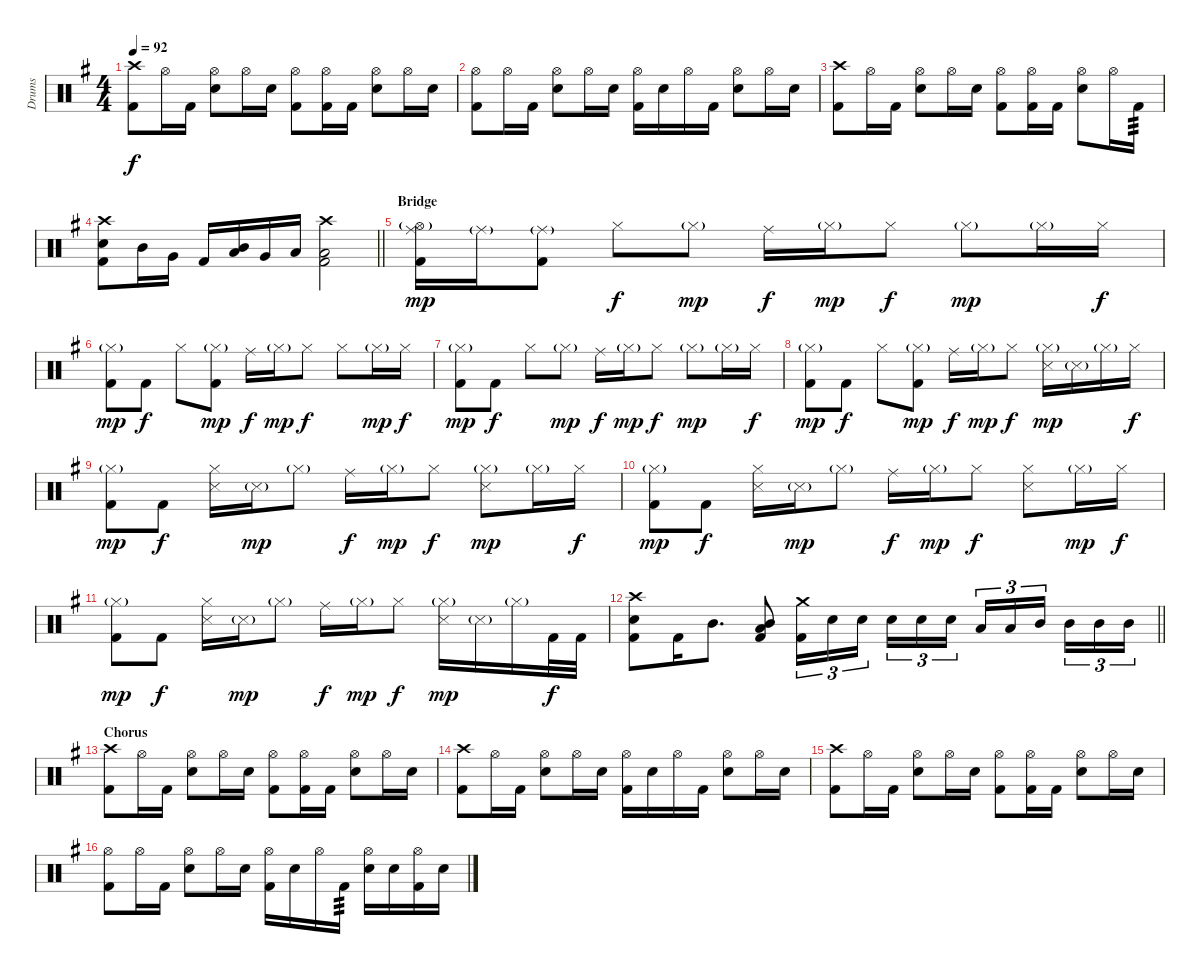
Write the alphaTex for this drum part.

\track ("Drums" "Drums") {instrument percussion}
\staff {score}
\articulation defaults
\ts (4 4)
\tempo 92
\clef neutral
\ks g
("Crash high (hit)" "Kick (hit) 2").8{dy f} "Hi-Hat (open)".16 "Kick (hit) 2".16 ("Hi-Hat (open)" "Electric Snare (hit)").8 "Hi-Hat (open)".16 "Electric Snare (hit)".16 ("Hi-Hat (open)" "Kick (hit) 2").8 ("Hi-Hat (open)" "Kick (hit) 2").16 "Kick (hit) 2".16 ("Hi-Hat (open)" "Electric Snare (hit)").8 "Hi-Hat (open)".16 "Electric Snare (hit)".16 |
("Hi-Hat (open)" "Kick (hit) 2").8 "Hi-Hat (open)".16 "Kick (hit) 2".16 ("Hi-Hat (open)" "Electric Snare (hit)").8 "Hi-Hat (open)".16 "Electric Snare (hit)".16 ("Hi-Hat (open)" "Kick (hit) 2").16 "Electric Snare (hit)".16 "Hi-Hat (open)".16 "Kick (hit) 2".16 ("Hi-Hat (open)" "Electric Snare (hit)").8 "Hi-Hat (open)".16 "Electric Snare (hit)".16 |
("Crash high (hit)" "Kick (hit) 2").8 "Hi-Hat (open)".16 "Kick (hit) 2".16 ("Hi-Hat (open)" "Electric Snare (hit)").8 "Hi-Hat (open)".16 "Electric Snare (hit)".16 ("Hi-Hat (open)" "Kick (hit) 2").8 ("Hi-Hat (open)" "Kick (hit) 2").16 "Kick (hit) 2".16 ("Hi-Hat (open)" "Electric Snare (hit)").8 "Hi-Hat (open)".16 "Kick (hit) 2".16{tp 3} |
\barLineRight lightlight
("Crash high (hit)" "Electric Snare (hit)" "Kick (hit) 2").8 "Mid Tom (hit)".16 "Very Low Tom (hit)".16 "Kick (hit) 2".16 ("Mid Tom (hit)" "Low Tom (hit)").16 "Very Low Tom (hit)".16 "Low Floor Tom (hit)".16 ("Crash high (hit)" "Low Floor Tom (hit)" "Kick (hit) 2").2 |
\section ("" "Bridge")
("Ride (middle)" "Hi-Hat (open)"{g} "Kick (hit) 2").16{dy mp} "Ride (middle)"{g}.16 ("Ride (middle)"{g} "Kick (hit) 2").8 "Hi-Hat (closed)".8{dy f} "Hi-Hat (closed)"{g}.8{dy mp} "Ride (middle)".16{dy f} "Hi-Hat (closed)"{g}.16{dy mp} "Hi-Hat (closed)".8{dy f} "Hi-Hat (closed)"{g}.8{dy mp} "Hi-Hat (closed)"{g}.16 "Hi-Hat (closed)".16{dy f} |
("Hi-Hat (closed)"{g} "Kick (hit) 2").8{dy mp} "Kick (hit) 2".8{dy f} "Hi-Hat (closed)".8 ("Hi-Hat (closed)"{g} "Kick (hit) 2").8{dy mp} "Ride (middle)".16{dy f} "Hi-Hat (closed)"{g}.16{dy mp} "Hi-Hat (closed)".8{dy f} "Hi-Hat (closed)".8 "Hi-Hat (closed)"{g}.16{dy mp} "Hi-Hat (closed)".16{dy f} |
("Hi-Hat (closed)"{g} "Kick (hit) 2").8{dy mp} "Kick (hit) 2".8{dy f} "Hi-Hat (closed)".8 "Hi-Hat (closed)"{g}.8{dy mp} "Ride (middle)".16{dy f} "Hi-Hat (closed)"{g}.16{dy mp} "Hi-Hat (closed)".8{dy f} "Hi-Hat (closed)"{g}.8{dy mp} "Hi-Hat (closed)"{g}.16 "Hi-Hat (closed)".16{dy f} |
("Hi-Hat (closed)"{g} "Kick (hit) 2").8{dy mp} "Kick (hit) 2".8{dy f} "Hi-Hat (closed)".8 ("Hi-Hat (closed)"{g} "Kick (hit) 2").8{dy mp} "Ride (middle)".16{dy f} "Hi-Hat (closed)"{g}.16{dy mp} "Hi-Hat (closed)".8{dy f} ("Hi-Hat (closed)"{g} "Snare (side stick) 3").16{dy mp} "Snare (side stick) 3"{g}.16 "Hi-Hat (closed)"{g}.16 "Hi-Hat (closed)".16{dy f} |
("Hi-Hat (closed)"{g} "Kick (hit) 2").8{dy mp} "Kick (hit) 2".8{dy f} ("Hi-Hat (closed)" "Snare (side stick) 3").16 "Snare (side stick) 3"{g}.16{dy mp} "Hi-Hat (closed)"{g}.8 "Ride (middle)".16{dy f} "Hi-Hat (closed)"{g}.16{dy mp} "Hi-Hat (closed)".8{dy f} ("Hi-Hat (closed)"{g} "Snare (side stick) 3").8{dy mp} "Hi-Hat (closed)"{g}.16 "Hi-Hat (closed)".16{dy f} |
("Hi-Hat (closed)"{g} "Kick (hit) 2").8{dy mp} "Kick (hit) 2".8{dy f} ("Hi-Hat (closed)" "Snare (side stick) 3").16 "Snare (side stick) 3"{g}.16{dy mp} "Hi-Hat (closed)"{g}.8 "Ride (middle)".16{dy f} "Hi-Hat (closed)"{g}.16{dy mp} "Hi-Hat (closed)".8{dy f} ("Hi-Hat (closed)" "Snare (side stick) 3").8 "Hi-Hat (closed)"{g}.16{dy mp} "Hi-Hat (closed)".16{dy f} |
("Hi-Hat (closed)"{g} "Kick (hit) 2").8{dy mp} "Kick (hit) 2".8{dy f} ("Hi-Hat (closed)" "Snare (side stick) 3").16 "Snare (side stick) 3"{g}.16{dy mp} "Hi-Hat (closed)"{g}.8 "Ride (middle)".16{dy f} "Hi-Hat (closed)"{g}.16{dy mp} "Hi-Hat (closed)".8{dy f} ("Hi-Hat (closed)"{g} "Snare (side stick) 3").16{dy mp} "Snare (side stick) 3"{g}.16 "Hi-Hat (closed)"{g}.16 "Kick (hit) 2".32{dy f} "Kick (hit) 2".32 |
\barLineRight lightlight
("Crash high (hit)" "Electric Snare (hit)" "Kick (hit) 2").8 "Kick (hit) 2".16 "Mid Tom (hit)".8{d} ("Mid Tom (hit)" "Low Tom (hit)" "Kick (hit) 2").8 ("Crash medium (hit)" "Kick (hit) 2").16{tu (3 2)} "Electric Snare (hit)".16{tu (3 2)} "Electric Snare (hit)".16{tu (3 2) beam splitsecondary} "Electric Snare (hit)".16{tu (3 2)} "Electric Snare (hit)".16{tu (3 2)} "Electric Snare (hit)".16{tu (3 2)} "Low Tom (hit)".16{tu (3 2)} "Low Tom (hit)".16{tu (3 2)} "Mid Tom (hit)".16{tu (3 2) beam splitsecondary} "Mid Tom (hit)".16{tu (3 2)} "Mid Tom (hit)".16{tu (3 2)} "Mid Tom (hit)".16{tu (3 2)} |
\section ("" "Chorus")
("Crash high (hit)" "Kick (hit) 2").8 "Hi-Hat (open)".16 "Kick (hit) 2".16 ("Hi-Hat (open)" "Electric Snare (hit)").8 "Hi-Hat (open)".16 "Electric Snare (hit)".16 ("Hi-Hat (open)" "Kick (hit) 2").8 ("Hi-Hat (open)" "Kick (hit) 2").16 "Kick (hit) 2".16 ("Hi-Hat (open)" "Electric Snare (hit)").8 "Hi-Hat (open)".16 "Electric Snare (hit)".16 |
("Crash high (hit)" "Kick (hit) 2").8 "Hi-Hat (open)".16 "Kick (hit) 2".16 ("Hi-Hat (open)" "Electric Snare (hit)").8 "Hi-Hat (open)".16 "Electric Snare (hit)".16 ("Hi-Hat (open)" "Kick (hit) 2").16 "Electric Snare (hit)".16 "Hi-Hat (open)".16 "Kick (hit) 2".16 ("Hi-Hat (open)" "Electric Snare (hit)").8 "Hi-Hat (open)".16 "Electric Snare (hit)".16 |
("Crash high (hit)" "Kick (hit) 2").8 "Hi-Hat (open)".16 "Kick (hit) 2".16 ("Hi-Hat (open)" "Electric Snare (hit)").8 "Hi-Hat (open)".16 "Electric Snare (hit)".16 ("Hi-Hat (open)" "Kick (hit) 2").8 ("Hi-Hat (open)" "Kick (hit) 2").16 "Kick (hit) 2".16 ("Hi-Hat (open)" "Electric Snare (hit)").8 "Hi-Hat (open)".16 "Electric Snare (hit)".16 |
("Hi-Hat (open)" "Kick (hit) 2").8 "Hi-Hat (open)".16 "Kick (hit) 2".16 ("Hi-Hat (open)" "Electric Snare (hit)").8 "Hi-Hat (open)".16 "Electric Snare (hit)".16 ("Hi-Hat (open)" "Kick (hit) 2").16 "Electric Snare (hit)".16 "Hi-Hat (open)".16 "Kick (hit) 2".16{tp 3} ("Hi-Hat (open)" "Electric Snare (hit)").16 "Electric Snare (hit)".16 ("Hi-Hat (open)" "Kick (hit) 2").16 "Electric Snare (hit)".16
